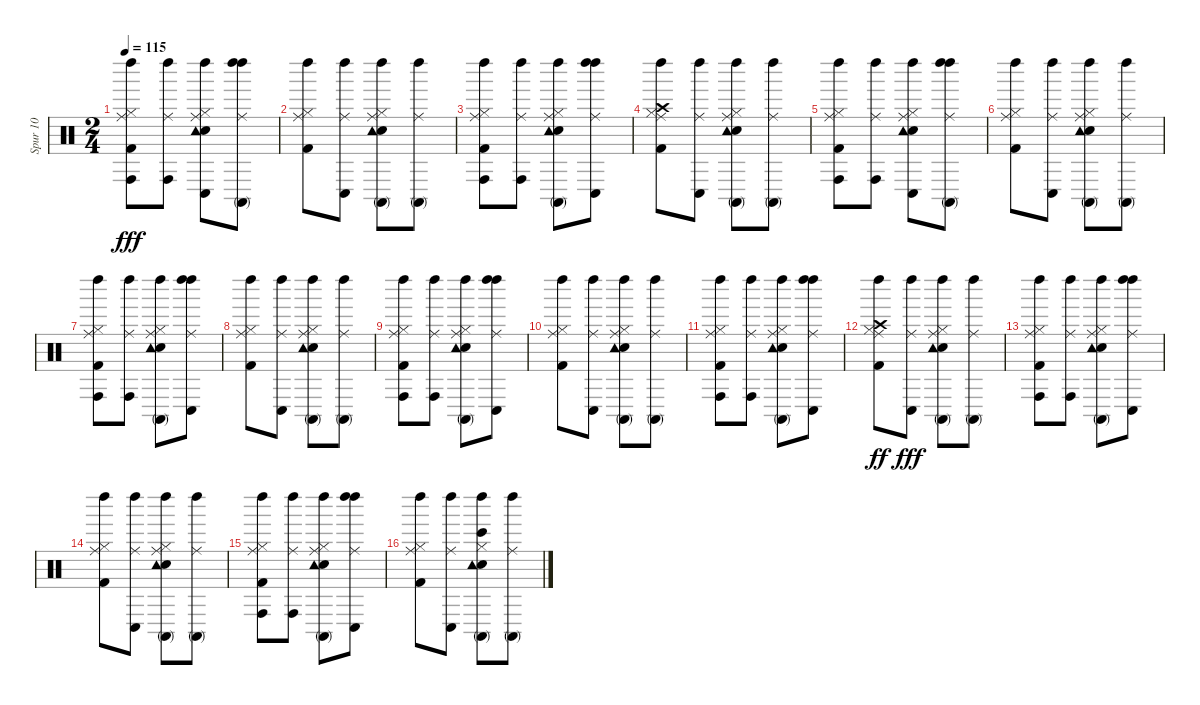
\track ("Spur 10" "Spur 10") {instrument percussion}
\staff {score}
\articulation defaults
\ts (2 4)
\tempo 115
\clef neutral
\ks c
("Left Maraca (hit)" "Hi-Hat (closed)" "Kick (hit) 2" "Conga high (hit)" "Ride (middle)").8{dy fff} ("Left Maraca (hit)" "Conga high (hit)" "Ride (middle)").8 ("Left Maraca (hit)" "Hi-Hat (closed)" "Electric Snare (hit)" "Tambourine (hit)" "Conga low (hit)" "Ride (middle)").8 ("Left Maraca (hit)" "Ride (middle)" "Left Maraca (hit)" "Conga high (mute)").8 |
("Left Maraca (hit)" "Hi-Hat (closed)" "Kick (hit) 2" "Ride (middle)").8 ("Left Maraca (hit)" "Conga low (hit)" "Ride (middle)").8 ("Left Maraca (hit)" "Hi-Hat (closed)" "Electric Snare (hit)" "Tambourine (hit)" "Conga high (mute)" "Ride (middle)").8 ("Ride (middle)" "Left Maraca (hit)" "Conga high (mute)").8 |
("Left Maraca (hit)" "Hi-Hat (closed)" "Kick (hit) 2" "Conga high (hit)" "Ride (middle)").8 ("Left Maraca (hit)" "Conga high (hit)" "Ride (middle)").8 ("Left Maraca (hit)" "Hi-Hat (closed)" "Electric Snare (hit)" "Tambourine (hit)" "Conga high (mute)" "Ride (middle)").8 ("Left Maraca (hit)" "Ride (middle)" "Left Maraca (hit)" "Conga low (hit)").8 |
("Crash high (hit)" "Left Maraca (hit)" "Hi-Hat (closed)" "Kick (hit) 2" "Ride (middle)").8 ("Left Maraca (hit)" "Conga low (hit)" "Ride (middle)").8 ("Left Maraca (hit)" "Hi-Hat (closed)" "Electric Snare (hit)" "Tambourine (hit)" "Conga high (mute)" "Ride (middle)").8 ("Left Maraca (hit)" "Conga high (mute)" "Ride (middle)").8 |
("Left Maraca (hit)" "Hi-Hat (closed)" "Kick (hit) 2" "Conga high (hit)" "Ride (middle)").8 ("Left Maraca (hit)" "Conga high (hit)" "Ride (middle)").8 ("Left Maraca (hit)" "Hi-Hat (closed)" "Electric Snare (hit)" "Tambourine (hit)" "Conga low (hit)" "Ride (middle)").8 ("Left Maraca (hit)" "Ride (middle)" "Left Maraca (hit)" "Conga high (mute)").8 |
("Left Maraca (hit)" "Hi-Hat (closed)" "Kick (hit) 2" "Ride (middle)").8 ("Left Maraca (hit)" "Conga low (hit)" "Ride (middle)").8 ("Left Maraca (hit)" "Hi-Hat (closed)" "Electric Snare (hit)" "Tambourine (hit)" "Conga high (mute)" "Ride (middle)").8 ("Ride (middle)" "Left Maraca (hit)" "Conga high (mute)").8 |
("Left Maraca (hit)" "Hi-Hat (closed)" "Kick (hit) 2" "Conga high (hit)" "Ride (middle)").8 ("Left Maraca (hit)" "Conga high (hit)" "Ride (middle)").8 ("Left Maraca (hit)" "Hi-Hat (closed)" "Electric Snare (hit)" "Tambourine (hit)" "Conga high (mute)" "Ride (middle)").8 ("Left Maraca (hit)" "Ride (middle)" "Left Maraca (hit)" "Conga low (hit)").8 |
("Left Maraca (hit)" "Hi-Hat (closed)" "Kick (hit) 2" "Ride (middle)").8 ("Left Maraca (hit)" "Conga low (hit)" "Ride (middle)").8 ("Ride (middle)" "Left Maraca (hit)" "Hi-Hat (closed)" "Electric Snare (hit)" "Tambourine (hit)" "Conga high (mute)").8 ("Left Maraca (hit)" "Conga high (mute)" "Ride (middle)").8 |
("Left Maraca (hit)" "Hi-Hat (closed)" "Kick (hit) 2" "Conga high (hit)" "Ride (middle)").8 ("Left Maraca (hit)" "Conga high (hit)" "Ride (middle)").8 ("Left Maraca (hit)" "Hi-Hat (closed)" "Electric Snare (hit)" "Tambourine (hit)" "Conga high (mute)" "Ride (middle)").8 ("Left Maraca (hit)" "Left Maraca (hit)" "Conga low (hit)" "Ride (middle)").8 |
("Left Maraca (hit)" "Hi-Hat (closed)" "Kick (hit) 2" "Ride (middle)").8 ("Left Maraca (hit)" "Conga low (hit)" "Ride (middle)").8 ("Left Maraca (hit)" "Hi-Hat (closed)" "Electric Snare (hit)" "Tambourine (hit)" "Conga high (mute)" "Ride (middle)").8 ("Left Maraca (hit)" "Conga high (mute)" "Ride (middle)").8 |
("Left Maraca (hit)" "Hi-Hat (closed)" "Kick (hit) 2" "Conga high (hit)" "Ride (middle)").8 ("Left Maraca (hit)" "Conga high (hit)" "Ride (middle)").8 ("Left Maraca (hit)" "Hi-Hat (closed)" "Electric Snare (hit)" "Tambourine (hit)" "Conga high (mute)" "Ride (middle)").8 ("Left Maraca (hit)" "Ride (middle)" "Left Maraca (hit)" "Conga low (hit)").8 |
("Ride (middle)" "Left Maraca (hit)" "Hi-Hat (closed)" "Kick (hit) 2" "Crash high (hit)").8{dy ff} ("Left Maraca (hit)" "Conga low (hit)" "Ride (middle)").8{dy fff} ("Left Maraca (hit)" "Hi-Hat (closed)" "Electric Snare (hit)" "Tambourine (hit)" "Conga high (mute)" "Ride (middle)").8 ("Left Maraca (hit)" "Conga high (mute)" "Ride (middle)").8 |
("Left Maraca (hit)" "Hi-Hat (closed)" "Kick (hit) 2" "Conga high (hit)" "Ride (middle)").8 ("Ride (middle)" "Left Maraca (hit)" "Conga high (hit)").8 ("Left Maraca (hit)" "Hi-Hat (closed)" "Electric Snare (hit)" "Tambourine (hit)" "Conga high (mute)" "Ride (middle)").8 ("Left Maraca (hit)" "Left Maraca (hit)" "Conga low (hit)" "Ride (middle)").8 |
("Left Maraca (hit)" "Hi-Hat (closed)" "Kick (hit) 2" "Ride (middle)").8 ("Left Maraca (hit)" "Conga low (hit)" "Ride (middle)").8 ("Left Maraca (hit)" "Hi-Hat (closed)" "Electric Snare (hit)" "Tambourine (hit)" "Conga high (mute)" "Ride (middle)").8 ("Left Maraca (hit)" "Conga high (mute)" "Ride (middle)").8 |
("Left Maraca (hit)" "Hi-Hat (closed)" "Kick (hit) 2" "Conga high (hit)" "Ride (middle)").8 ("Left Maraca (hit)" "Conga high (hit)" "Ride (middle)").8 ("Left Maraca (hit)" "Hi-Hat (closed)" "Electric Snare (hit)" "Tambourine (hit)" "Conga high (mute)" "Ride (middle)").8 ("Left Maraca (hit)" "Left Maraca (hit)" "Conga low (hit)" "Ride (middle)").8 |
("Left Maraca (hit)" "Hi-Hat (closed)" "Kick (hit) 2" "Ride (middle)").8 ("Conga low (hit)" "Left Maraca (hit)" "Ride (middle)").8 ("Left Maraca (hit)" "Hi-Hat (closed)" "Electric Snare (hit)" "Tambourine (hit)" "Conga high (mute)" "Bongo High (hit)").8 ("Left Maraca (hit)" "Conga high (mute)" "Ride (middle)").8
